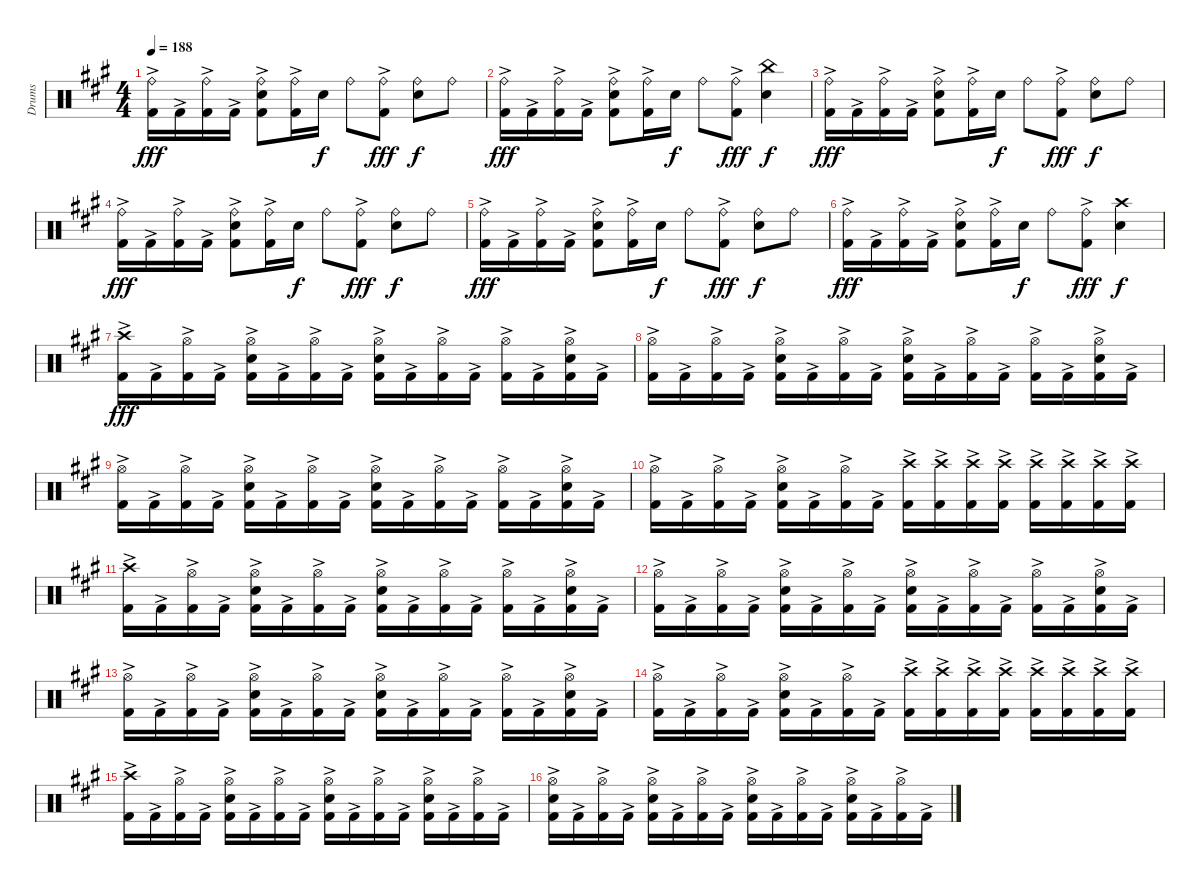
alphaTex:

\track ("Drums" "Drums") {instrument percussion}
\staff {score}
\articulation defaults
\ts (4 4)
\tempo 188
\clef neutral
\ks f#minor
("Ride (bell)" "Kick (hit) 2"{ac}).16{dy fff} "Kick (hit) 2"{ac}.16 ("Ride (bell)" "Kick (hit) 2"{ac}).16 "Kick (hit) 2"{ac}.16 ("Ride (bell)" "Snare (hit) 2" "Kick (hit) 2"{ac}).8 ("Ride (bell)" "Kick (hit) 2"{ac}).16 "Snare (hit) 2".16{dy f} "Ride (bell)".8 ("Ride (bell)" "Kick (hit) 2"{ac}).8{dy fff} ("Ride (bell)" "Snare (hit) 2").8{dy f} "Ride (bell)".8 |
("Ride (bell)" "Kick (hit) 2"{ac}).16{dy fff} "Kick (hit) 2"{ac}.16 ("Ride (bell)" "Kick (hit) 2"{ac}).16 "Kick (hit) 2"{ac}.16 ("Ride (bell)" "Snare (hit) 2" "Kick (hit) 2"{ac}).8 ("Ride (bell)" "Kick (hit) 2"{ac}).16 "Snare (hit) 2".16{dy f} "Ride (bell)".8 ("Ride (bell)" "Kick (hit) 2"{ac}).8{dy fff} ("China (hit)" "Snare (hit) 2").4{dy f} |
("Ride (bell)" "Kick (hit) 2"{ac}).16{dy fff} "Kick (hit) 2"{ac}.16 ("Ride (bell)" "Kick (hit) 2"{ac}).16 "Kick (hit) 2"{ac}.16 ("Ride (bell)" "Snare (hit) 2" "Kick (hit) 2"{ac}).8 ("Ride (bell)" "Kick (hit) 2"{ac}).16 "Snare (hit) 2".16{dy f} "Ride (bell)".8 ("Ride (bell)" "Kick (hit) 2"{ac}).8{dy fff} ("Ride (bell)" "Snare (hit) 2").8{dy f} "Ride (bell)".8 |
("Ride (bell)" "Kick (hit) 2"{ac}).16{dy fff} "Kick (hit) 2"{ac}.16 ("Ride (bell)" "Kick (hit) 2"{ac}).16 "Kick (hit) 2"{ac}.16 ("Ride (bell)" "Snare (hit) 2" "Kick (hit) 2"{ac}).8 ("Ride (bell)" "Kick (hit) 2"{ac}).16 "Snare (hit) 2".16{dy f} "Ride (bell)".8 ("Ride (bell)" "Kick (hit) 2"{ac}).8{dy fff} ("Ride (bell)" "Snare (hit) 2").8{dy f} "Ride (bell)".8 |
("Ride (bell)" "Kick (hit) 2"{ac}).16{dy fff} "Kick (hit) 2"{ac}.16 ("Ride (bell)" "Kick (hit) 2"{ac}).16 "Kick (hit) 2"{ac}.16 ("Ride (bell)" "Snare (hit) 2" "Kick (hit) 2"{ac}).8 ("Ride (bell)" "Kick (hit) 2"{ac}).16 "Snare (hit) 2".16{dy f} "Ride (bell)".8 ("Ride (bell)" "Kick (hit) 2"{ac}).8{dy fff} ("Ride (bell)" "Snare (hit) 2").8{dy f} "Ride (bell)".8 |
("Ride (bell)" "Kick (hit) 2"{ac}).16{dy fff} "Kick (hit) 2"{ac}.16 ("Ride (bell)" "Kick (hit) 2"{ac}).16 "Kick (hit) 2"{ac}.16 ("Ride (bell)" "Snare (hit) 2" "Kick (hit) 2"{ac}).8 ("Ride (bell)" "Kick (hit) 2"{ac}).16 "Snare (hit) 2".16{dy f} "Ride (bell)".8 ("Ride (bell)" "Kick (hit) 2"{ac}).8{dy fff} ("Crash high (hit)" "Snare (hit) 2").4{dy f} |
("Crash high (hit)" "Kick (hit) 2"{ac}).16{dy fff} "Kick (hit) 2"{ac}.16 ("Hi-Hat (open)" "Kick (hit) 2"{ac}).16 "Kick (hit) 2"{ac}.16 ("Hi-Hat (open)" "Snare (hit) 2" "Kick (hit) 2"{ac}).16 "Kick (hit) 2"{ac}.16 ("Hi-Hat (open)" "Kick (hit) 2"{ac}).16 "Kick (hit) 2"{ac}.16 ("Hi-Hat (open)" "Snare (hit) 2" "Kick (hit) 2"{ac}).16 "Kick (hit) 2"{ac}.16 ("Hi-Hat (open)" "Kick (hit) 2"{ac}).16 "Kick (hit) 2"{ac}.16 ("Hi-Hat (open)" "Kick (hit) 2"{ac}).16 "Kick (hit) 2"{ac}.16 ("Hi-Hat (open)" "Snare (hit) 2" "Kick (hit) 2"{ac}).16 "Kick (hit) 2"{ac}.16 |
("Hi-Hat (open)" "Kick (hit) 2"{ac}).16 "Kick (hit) 2"{ac}.16 ("Hi-Hat (open)" "Kick (hit) 2"{ac}).16 "Kick (hit) 2"{ac}.16 ("Hi-Hat (open)" "Snare (hit) 2" "Kick (hit) 2"{ac}).16 "Kick (hit) 2"{ac}.16 ("Hi-Hat (open)" "Kick (hit) 2"{ac}).16 "Kick (hit) 2"{ac}.16 ("Hi-Hat (open)" "Snare (hit) 2" "Kick (hit) 2"{ac}).16 "Kick (hit) 2"{ac}.16 ("Hi-Hat (open)" "Kick (hit) 2"{ac}).16 "Kick (hit) 2"{ac}.16 ("Hi-Hat (open)" "Kick (hit) 2"{ac}).16 "Kick (hit) 2"{ac}.16 ("Hi-Hat (open)" "Snare (hit) 2" "Kick (hit) 2"{ac}).16 "Kick (hit) 2"{ac}.16 |
("Hi-Hat (open)" "Kick (hit) 2"{ac}).16 "Kick (hit) 2"{ac}.16 ("Hi-Hat (open)" "Kick (hit) 2"{ac}).16 "Kick (hit) 2"{ac}.16 ("Hi-Hat (open)" "Snare (hit) 2" "Kick (hit) 2"{ac}).16 "Kick (hit) 2"{ac}.16 ("Hi-Hat (open)" "Kick (hit) 2"{ac}).16 "Kick (hit) 2"{ac}.16 ("Hi-Hat (open)" "Snare (hit) 2" "Kick (hit) 2"{ac}).16 "Kick (hit) 2"{ac}.16 ("Hi-Hat (open)" "Kick (hit) 2"{ac}).16 "Kick (hit) 2"{ac}.16 ("Hi-Hat (open)" "Kick (hit) 2"{ac}).16 "Kick (hit) 2"{ac}.16 ("Hi-Hat (open)" "Snare (hit) 2" "Kick (hit) 2"{ac}).16 "Kick (hit) 2"{ac}.16 |
("Hi-Hat (open)" "Kick (hit) 2"{ac}).16 "Kick (hit) 2"{ac}.16 ("Hi-Hat (open)" "Kick (hit) 2"{ac}).16 "Kick (hit) 2"{ac}.16 ("Hi-Hat (open)" "Snare (hit) 2" "Kick (hit) 2"{ac}).16 "Kick (hit) 2"{ac}.16 ("Hi-Hat (open)" "Kick (hit) 2"{ac}).16 "Kick (hit) 2"{ac}.16 ("Crash high (hit)" "Kick (hit) 2"{ac}).16 ("Crash high (hit)" "Kick (hit) 2"{ac}).16 ("Crash high (hit)" "Kick (hit) 2"{ac}).16 ("Crash high (hit)" "Kick (hit) 2"{ac}).16 ("Crash high (hit)" "Kick (hit) 2"{ac}).16 ("Crash high (hit)" "Kick (hit) 2"{ac}).16 ("Crash high (hit)" "Kick (hit) 2"{ac}).16 ("Crash high (hit)" "Kick (hit) 2"{ac}).16 |
("Crash high (hit)" "Kick (hit) 2"{ac}).16 "Kick (hit) 2"{ac}.16 ("Hi-Hat (open)" "Kick (hit) 2"{ac}).16 "Kick (hit) 2"{ac}.16 ("Hi-Hat (open)" "Snare (hit) 2" "Kick (hit) 2"{ac}).16 "Kick (hit) 2"{ac}.16 ("Hi-Hat (open)" "Kick (hit) 2"{ac}).16 "Kick (hit) 2"{ac}.16 ("Hi-Hat (open)" "Snare (hit) 2" "Kick (hit) 2"{ac}).16 "Kick (hit) 2"{ac}.16 ("Hi-Hat (open)" "Kick (hit) 2"{ac}).16 "Kick (hit) 2"{ac}.16 ("Hi-Hat (open)" "Kick (hit) 2"{ac}).16 "Kick (hit) 2"{ac}.16 ("Hi-Hat (open)" "Snare (hit) 2" "Kick (hit) 2"{ac}).16 "Kick (hit) 2"{ac}.16 |
("Hi-Hat (open)" "Kick (hit) 2"{ac}).16 "Kick (hit) 2"{ac}.16 ("Hi-Hat (open)" "Kick (hit) 2"{ac}).16 "Kick (hit) 2"{ac}.16 ("Hi-Hat (open)" "Snare (hit) 2" "Kick (hit) 2"{ac}).16 "Kick (hit) 2"{ac}.16 ("Hi-Hat (open)" "Kick (hit) 2"{ac}).16 "Kick (hit) 2"{ac}.16 ("Hi-Hat (open)" "Snare (hit) 2" "Kick (hit) 2"{ac}).16 "Kick (hit) 2"{ac}.16 ("Hi-Hat (open)" "Kick (hit) 2"{ac}).16 "Kick (hit) 2"{ac}.16 ("Hi-Hat (open)" "Kick (hit) 2"{ac}).16 "Kick (hit) 2"{ac}.16 ("Hi-Hat (open)" "Snare (hit) 2" "Kick (hit) 2"{ac}).16 "Kick (hit) 2"{ac}.16 |
("Hi-Hat (open)" "Kick (hit) 2"{ac}).16 "Kick (hit) 2"{ac}.16 ("Hi-Hat (open)" "Kick (hit) 2"{ac}).16 "Kick (hit) 2"{ac}.16 ("Hi-Hat (open)" "Snare (hit) 2" "Kick (hit) 2"{ac}).16 "Kick (hit) 2"{ac}.16 ("Hi-Hat (open)" "Kick (hit) 2"{ac}).16 "Kick (hit) 2"{ac}.16 ("Hi-Hat (open)" "Snare (hit) 2" "Kick (hit) 2"{ac}).16 "Kick (hit) 2"{ac}.16 ("Hi-Hat (open)" "Kick (hit) 2"{ac}).16 "Kick (hit) 2"{ac}.16 ("Hi-Hat (open)" "Kick (hit) 2"{ac}).16 "Kick (hit) 2"{ac}.16 ("Hi-Hat (open)" "Snare (hit) 2" "Kick (hit) 2"{ac}).16 "Kick (hit) 2"{ac}.16 |
("Hi-Hat (open)" "Kick (hit) 2"{ac}).16 "Kick (hit) 2"{ac}.16 ("Hi-Hat (open)" "Kick (hit) 2"{ac}).16 "Kick (hit) 2"{ac}.16 ("Hi-Hat (open)" "Snare (hit) 2" "Kick (hit) 2"{ac}).16 "Kick (hit) 2"{ac}.16 ("Hi-Hat (open)" "Kick (hit) 2"{ac}).16 "Kick (hit) 2"{ac}.16 ("Crash high (hit)" "Kick (hit) 2"{ac}).16 ("Crash high (hit)" "Kick (hit) 2"{ac}).16 ("Crash high (hit)" "Kick (hit) 2"{ac}).16 ("Crash high (hit)" "Kick (hit) 2"{ac}).16 ("Crash high (hit)" "Kick (hit) 2"{ac}).16 ("Crash high (hit)" "Kick (hit) 2"{ac}).16 ("Crash high (hit)" "Kick (hit) 2"{ac}).16 ("Crash high (hit)" "Kick (hit) 2"{ac}).16 |
("Crash high (hit)" "Kick (hit) 2"{ac}).16 "Kick (hit) 2"{ac}.16 ("Hi-Hat (open)" "Kick (hit) 2"{ac}).16 "Kick (hit) 2"{ac}.16 ("Hi-Hat (open)" "Snare (hit) 2" "Kick (hit) 2"{ac}).16 "Kick (hit) 2"{ac}.16 ("Hi-Hat (open)" "Kick (hit) 2"{ac}).16 "Kick (hit) 2"{ac}.16 ("Hi-Hat (open)" "Snare (hit) 2" "Kick (hit) 2"{ac}).16 "Kick (hit) 2"{ac}.16 ("Hi-Hat (open)" "Kick (hit) 2"{ac}).16 "Kick (hit) 2"{ac}.16 ("Hi-Hat (open)" "Snare (hit) 2" "Kick (hit) 2"{ac}).16 "Kick (hit) 2"{ac}.16 ("Hi-Hat (open)" "Kick (hit) 2"{ac}).16 "Kick (hit) 2"{ac}.16 |
("Hi-Hat (open)" "Snare (hit) 2" "Kick (hit) 2"{ac}).16 "Kick (hit) 2"{ac}.16 ("Hi-Hat (open)" "Kick (hit) 2"{ac}).16 "Kick (hit) 2"{ac}.16 ("Hi-Hat (open)" "Snare (hit) 2" "Kick (hit) 2"{ac}).16 "Kick (hit) 2"{ac}.16 ("Hi-Hat (open)" "Kick (hit) 2"{ac}).16 "Kick (hit) 2"{ac}.16 ("Hi-Hat (open)" "Snare (hit) 2" "Kick (hit) 2"{ac}).16 "Kick (hit) 2"{ac}.16 ("Hi-Hat (open)" "Kick (hit) 2"{ac}).16 "Kick (hit) 2"{ac}.16 ("Hi-Hat (open)" "Snare (hit) 2" "Kick (hit) 2"{ac}).16 "Kick (hit) 2"{ac}.16 ("Hi-Hat (open)" "Kick (hit) 2"{ac}).16 "Kick (hit) 2"{ac}.16
